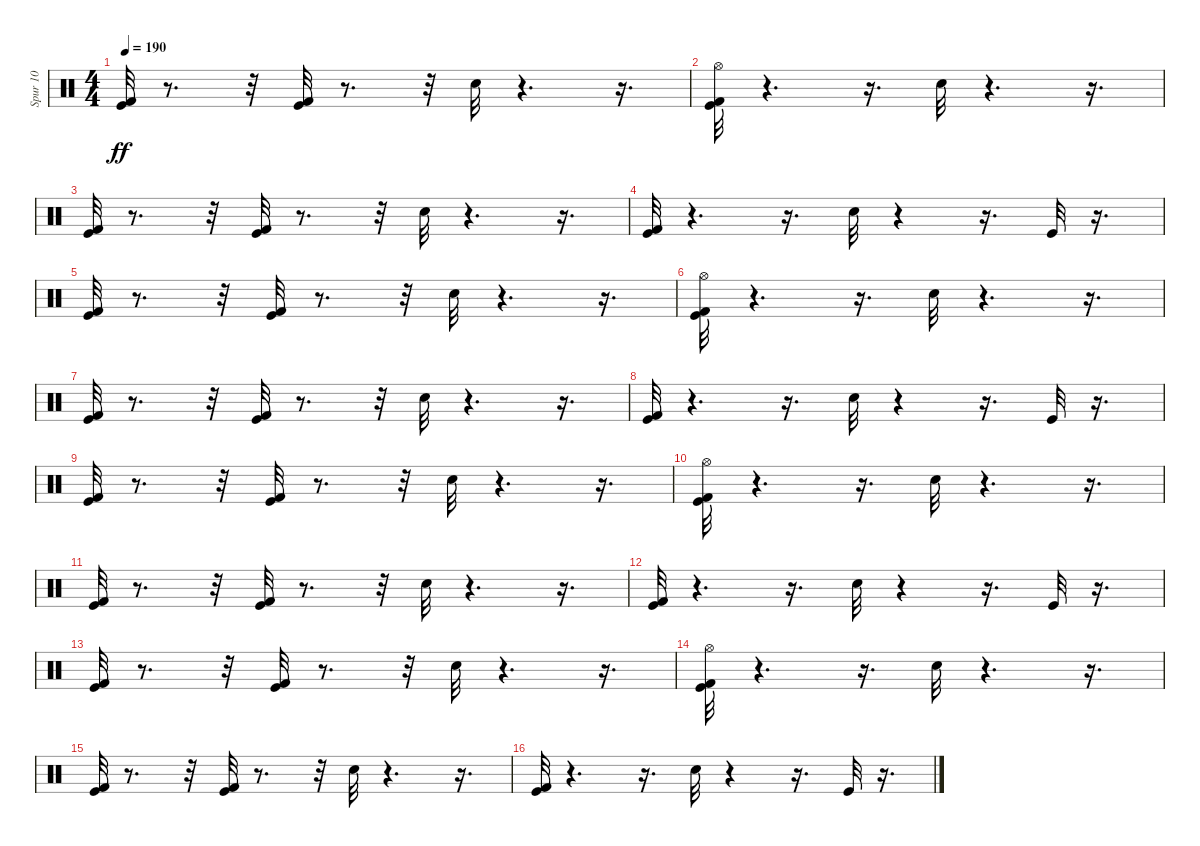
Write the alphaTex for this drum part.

\track ("Spur 10" "Spur 10") {instrument percussion}
\staff {score}
\articulation defaults
\ts (4 4)
\tempo 190
\clef neutral
\ks c
("Kick (hit) 2" "Kick (hit)").32{dy ff} r.8{d} r.32 ("Kick (hit) 2" "Kick (hit)").32 r.8{d} r.32 "Hand Clap (hit)".32 r.4{d} r.16{d} |
("Hi-Hat (open)" "Kick (hit) 2" "Kick (hit)").32 r.4{d} r.16{d} "Hand Clap (hit)".32 r.4{d} r.16{d} |
("Kick (hit) 2" "Kick (hit)").32 r.8{d} r.32 ("Kick (hit) 2" "Kick (hit)").32 r.8{d} r.32 "Hand Clap (hit)".32 r.4{d} r.16{d} |
("Kick (hit) 2" "Kick (hit)").32 r.4{d} r.16{d} "Hand Clap (hit)".32 r.4 r.16{d} "Kick (hit)".32 r.16{d} |
("Kick (hit) 2" "Kick (hit)").32 r.8{d} r.32 ("Kick (hit) 2" "Kick (hit)").32 r.8{d} r.32 "Hand Clap (hit)".32 r.4{d} r.16{d} |
("Hi-Hat (open)" "Kick (hit) 2" "Kick (hit)").32 r.4{d} r.16{d} "Hand Clap (hit)".32 r.4{d} r.16{d} |
("Kick (hit) 2" "Kick (hit)").32 r.8{d} r.32 ("Kick (hit) 2" "Kick (hit)").32 r.8{d} r.32 "Hand Clap (hit)".32 r.4{d} r.16{d} |
("Kick (hit) 2" "Kick (hit)").32 r.4{d} r.16{d} "Hand Clap (hit)".32 r.4 r.16{d} "Kick (hit)".32 r.16{d} |
("Kick (hit) 2" "Kick (hit)").32 r.8{d} r.32 ("Kick (hit) 2" "Kick (hit)").32 r.8{d} r.32 "Hand Clap (hit)".32 r.4{d} r.16{d} |
("Hi-Hat (open)" "Kick (hit) 2" "Kick (hit)").32 r.4{d} r.16{d} "Hand Clap (hit)".32 r.4{d} r.16{d} |
("Kick (hit) 2" "Kick (hit)").32 r.8{d} r.32 ("Kick (hit) 2" "Kick (hit)").32 r.8{d} r.32 "Hand Clap (hit)".32 r.4{d} r.16{d} |
("Kick (hit) 2" "Kick (hit)").32 r.4{d} r.16{d} "Hand Clap (hit)".32 r.4 r.16{d} "Kick (hit)".32 r.16{d} |
("Kick (hit) 2" "Kick (hit)").32 r.8{d} r.32 ("Kick (hit) 2" "Kick (hit)").32 r.8{d} r.32 "Hand Clap (hit)".32 r.4{d} r.16{d} |
("Hi-Hat (open)" "Kick (hit) 2" "Kick (hit)").32 r.4{d} r.16{d} "Hand Clap (hit)".32{volume 12} r.4{d} r.16{d} |
("Kick (hit) 2" "Kick (hit)").32{volume 11} r.8{d} r.32 ("Kick (hit) 2" "Kick (hit)").32{volume 11} r.8{d} r.32 "Hand Clap (hit)".32{volume 11} r.4{d} r.16{d} |
("Kick (hit) 2" "Kick (hit)").32{volume 10} r.4{d} r.16{d} "Hand Clap (hit)".32{volume 10} r.4 r.16{d} "Kick (hit)".32{volume 10} r.16{d}
